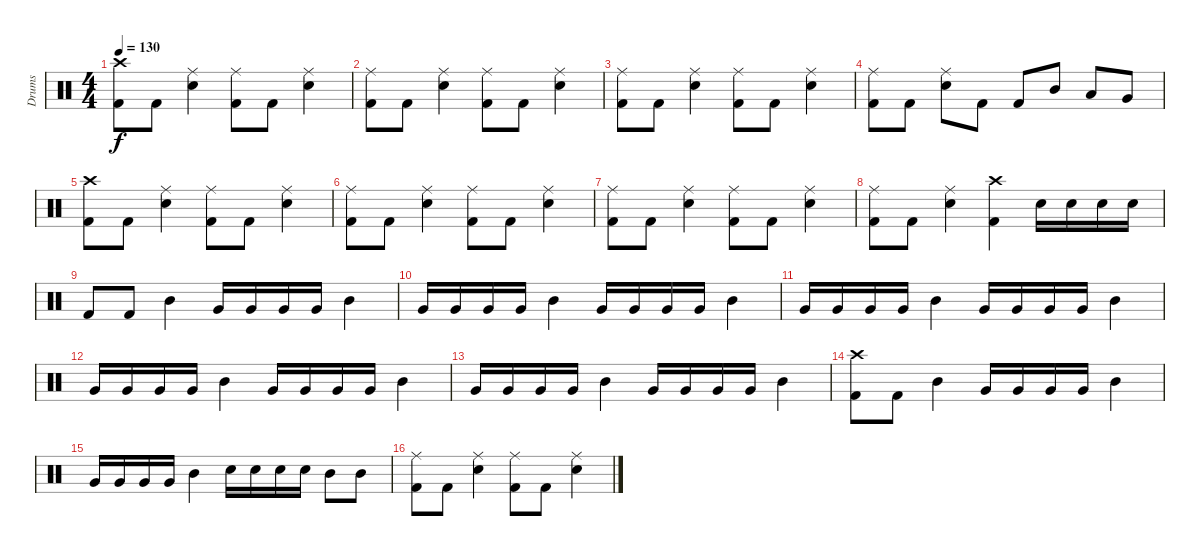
\track ("Drums" "Drums") {instrument percussion}
\staff {score}
\articulation defaults
\ts (4 4)
\tempo 130
\clef neutral
\ks c
("Crash high (hit)" "Kick (hit) 2").8{dy f} "Kick (hit) 2".8 ("Ride (middle)" "Electric Snare (hit)").4 ("Ride (middle)" "Kick (hit) 2").8 "Kick (hit) 2".8 ("Ride (middle)" "Electric Snare (hit)").4 |
("Ride (middle)" "Kick (hit) 2").8 "Kick (hit) 2".8 ("Ride (middle)" "Electric Snare (hit)").4 ("Ride (middle)" "Kick (hit) 2").8 "Kick (hit) 2".8 ("Ride (middle)" "Electric Snare (hit)").4 |
("Ride (middle)" "Kick (hit) 2").8 "Kick (hit) 2".8 ("Ride (middle)" "Electric Snare (hit)").4 ("Ride (middle)" "Kick (hit) 2").8 "Kick (hit) 2".8 ("Ride (middle)" "Electric Snare (hit)").4 |
("Ride (middle)" "Kick (hit) 2").8 "Kick (hit) 2".8 ("Ride (middle)" "Electric Snare (hit)").8 "Kick (hit) 2".8 "Kick (hit) 2".8 "Mid Tom (hit)".8 "Low Tom (hit)".8 "Very Low Tom (hit)".8 |
("Crash high (hit)" "Kick (hit) 2").8 "Kick (hit) 2".8 ("Ride (middle)" "Electric Snare (hit)").4 ("Ride (middle)" "Kick (hit) 2").8 "Kick (hit) 2".8 ("Ride (middle)" "Electric Snare (hit)").4 |
("Ride (middle)" "Kick (hit) 2").8 "Kick (hit) 2".8 ("Ride (middle)" "Electric Snare (hit)").4 ("Ride (middle)" "Kick (hit) 2").8 "Kick (hit) 2".8 ("Ride (middle)" "Electric Snare (hit)").4 |
("Ride (middle)" "Kick (hit) 2").8 "Kick (hit) 2".8 ("Ride (middle)" "Electric Snare (hit)").4 ("Ride (middle)" "Kick (hit) 2").8 "Kick (hit) 2".8 ("Ride (middle)" "Electric Snare (hit)").4 |
("Ride (middle)" "Kick (hit) 2").8 "Kick (hit) 2".8 ("Ride (middle)" "Electric Snare (hit)").4 ("Crash high (hit)" "Kick (hit) 2").4 "Electric Snare (hit)".16 "Electric Snare (hit)".16 "Electric Snare (hit)".16 "Electric Snare (hit)".16 |
"Kick (hit) 2".8 "Kick (hit) 2".8 "Mid Tom (hit)".4 "Very Low Tom (hit)".16 "Very Low Tom (hit)".16 "Very Low Tom (hit)".16 "Very Low Tom (hit)".16 "Mid Tom (hit)".4 |
"Very Low Tom (hit)".16 "Very Low Tom (hit)".16 "Very Low Tom (hit)".16 "Very Low Tom (hit)".16 "Mid Tom (hit)".4 "Very Low Tom (hit)".16 "Very Low Tom (hit)".16 "Very Low Tom (hit)".16 "Very Low Tom (hit)".16 "Mid Tom (hit)".4 |
"Very Low Tom (hit)".16 "Very Low Tom (hit)".16 "Very Low Tom (hit)".16 "Very Low Tom (hit)".16 "Mid Tom (hit)".4 "Very Low Tom (hit)".16 "Very Low Tom (hit)".16 "Very Low Tom (hit)".16 "Very Low Tom (hit)".16 "Mid Tom (hit)".4 |
"Very Low Tom (hit)".16 "Very Low Tom (hit)".16 "Very Low Tom (hit)".16 "Very Low Tom (hit)".16 "Mid Tom (hit)".4 "Very Low Tom (hit)".16 "Very Low Tom (hit)".16 "Very Low Tom (hit)".16 "Very Low Tom (hit)".16 "Mid Tom (hit)".4 |
"Very Low Tom (hit)".16 "Very Low Tom (hit)".16 "Very Low Tom (hit)".16 "Very Low Tom (hit)".16 "Mid Tom (hit)".4 "Very Low Tom (hit)".16 "Very Low Tom (hit)".16 "Very Low Tom (hit)".16 "Very Low Tom (hit)".16 "Mid Tom (hit)".4 |
("Crash high (hit)" "Kick (hit) 2").8 "Kick (hit) 2".8 "Mid Tom (hit)".4 "Very Low Tom (hit)".16 "Very Low Tom (hit)".16 "Very Low Tom (hit)".16 "Very Low Tom (hit)".16 "Mid Tom (hit)".4 |
"Very Low Tom (hit)".16 "Very Low Tom (hit)".16 "Very Low Tom (hit)".16 "Very Low Tom (hit)".16 "Mid Tom (hit)".4 "Electric Snare (hit)".16 "Electric Snare (hit)".16 "Electric Snare (hit)".16 "Electric Snare (hit)".16 "Mid Tom (hit)".8 "Mid Tom (hit)".8 |
("Ride (middle)" "Kick (hit) 2").8 "Kick (hit) 2".8 ("Ride (middle)" "Electric Snare (hit)").4 ("Ride (middle)" "Kick (hit) 2").8 "Kick (hit) 2".8 ("Ride (middle)" "Electric Snare (hit)").4
